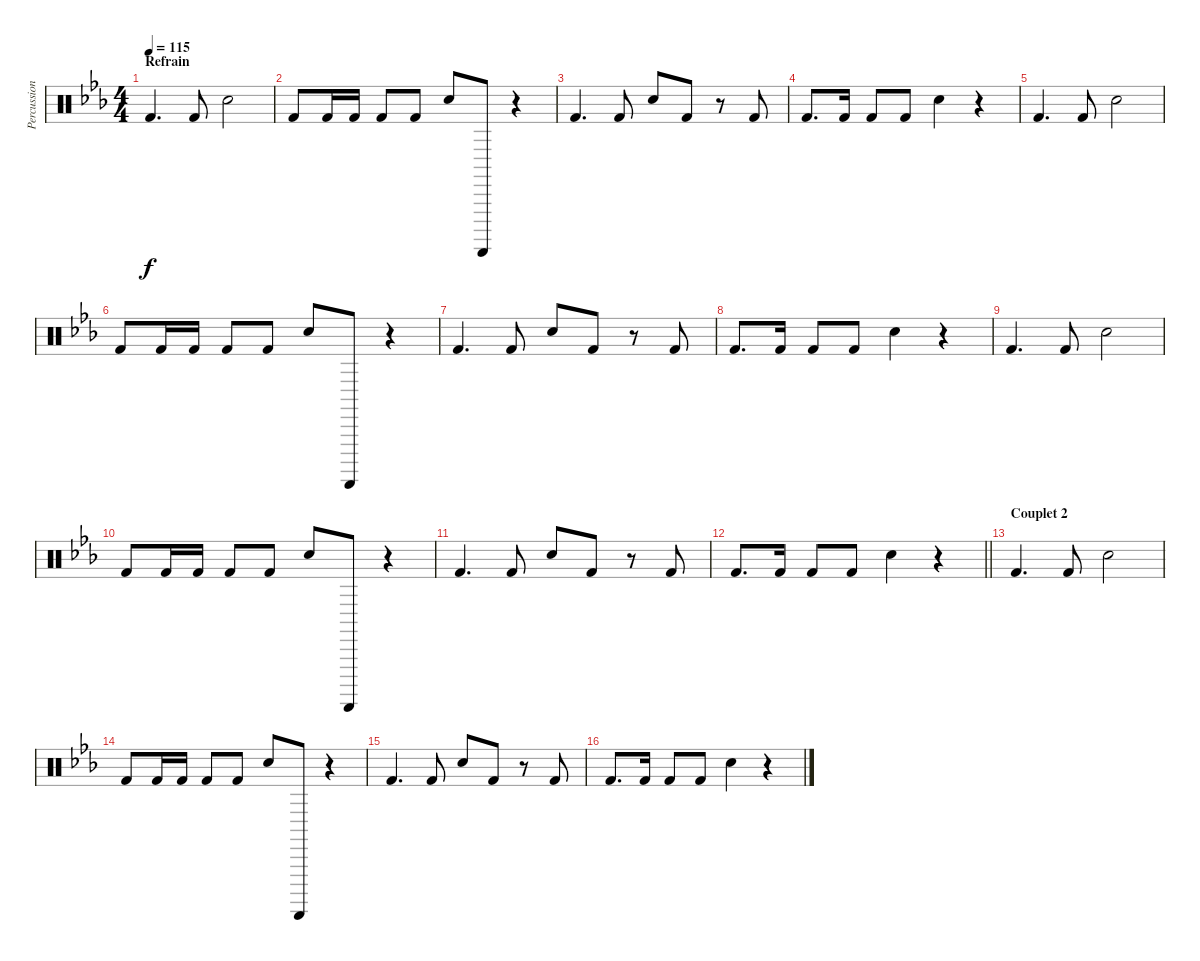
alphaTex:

\track ("Percussions" "Percussion") {instrument percussion}
\staff {score}
\articulation defaults
\ts (4 4)
\section ("" "Refrain")
\tempo 115
\clef neutral
\ks eb "Kick (hit) 2".4{d dy f} "Kick (hit) 2".8 "Hand Clap (hit)".2
|
"Kick (hit) 2".8 "Kick (hit) 2".16 "Kick (hit) 2".16 "Kick (hit) 2".8 "Kick (hit) 2".8 "Hand Clap (hit)".8 "Guiro (scrap-return)".8 r.4 |
"Kick (hit) 2".4{d} "Kick (hit) 2".8 "Hand Clap (hit)".8 "Kick (hit) 2".8 r.8 "Kick (hit) 2".8 |
"Kick (hit) 2".8{d} "Kick (hit) 2".16 "Kick (hit) 2".8 "Kick (hit) 2".8 "Hand Clap (hit)".4 r.4 |
"Kick (hit) 2".4{d} "Kick (hit) 2".8 "Hand Clap (hit)".2 |
"Kick (hit) 2".8 "Kick (hit) 2".16 "Kick (hit) 2".16 "Kick (hit) 2".8 "Kick (hit) 2".8 "Hand Clap (hit)".8 "Guiro (scrap-return)".8 r.4 |
"Kick (hit) 2".4{d} "Kick (hit) 2".8 "Hand Clap (hit)".8 "Kick (hit) 2".8 r.8 "Kick (hit) 2".8 |
"Kick (hit) 2".8{d} "Kick (hit) 2".16 "Kick (hit) 2".8 "Kick (hit) 2".8 "Hand Clap (hit)".4 r.4 |
"Kick (hit) 2".4{d} "Kick (hit) 2".8 "Hand Clap (hit)".2 |
"Kick (hit) 2".8 "Kick (hit) 2".16 "Kick (hit) 2".16 "Kick (hit) 2".8 "Kick (hit) 2".8 "Hand Clap (hit)".8 "Guiro (scrap-return)".8 r.4 |
"Kick (hit) 2".4{d} "Kick (hit) 2".8 "Hand Clap (hit)".8 "Kick (hit) 2".8 r.8 "Kick (hit) 2".8 |
\barLineRight lightlight "Kick (hit) 2".8{d} "Kick (hit) 2".16 "Kick (hit) 2".8 "Kick (hit) 2".8 "Hand Clap (hit)".4
r.4 |
\section ("" "Couplet 2")
"Kick (hit) 2".4{d} "Kick (hit) 2".8 "Hand Clap (hit)".2 |
"Kick (hit) 2".8 "Kick (hit) 2".16 "Kick (hit) 2".16 "Kick (hit) 2".8 "Kick (hit) 2".8 "Hand Clap (hit)".8 "Guiro (scrap-return)".8 r.4 |
"Kick (hit) 2".4{d} "Kick (hit) 2".8 "Hand Clap (hit)".8 "Kick (hit) 2".8 r.8 "Kick (hit) 2".8 |
"Kick (hit) 2".8{d} "Kick (hit) 2".16 "Kick (hit) 2".8 "Kick (hit) 2".8 "Hand Clap (hit)".4 r.4
